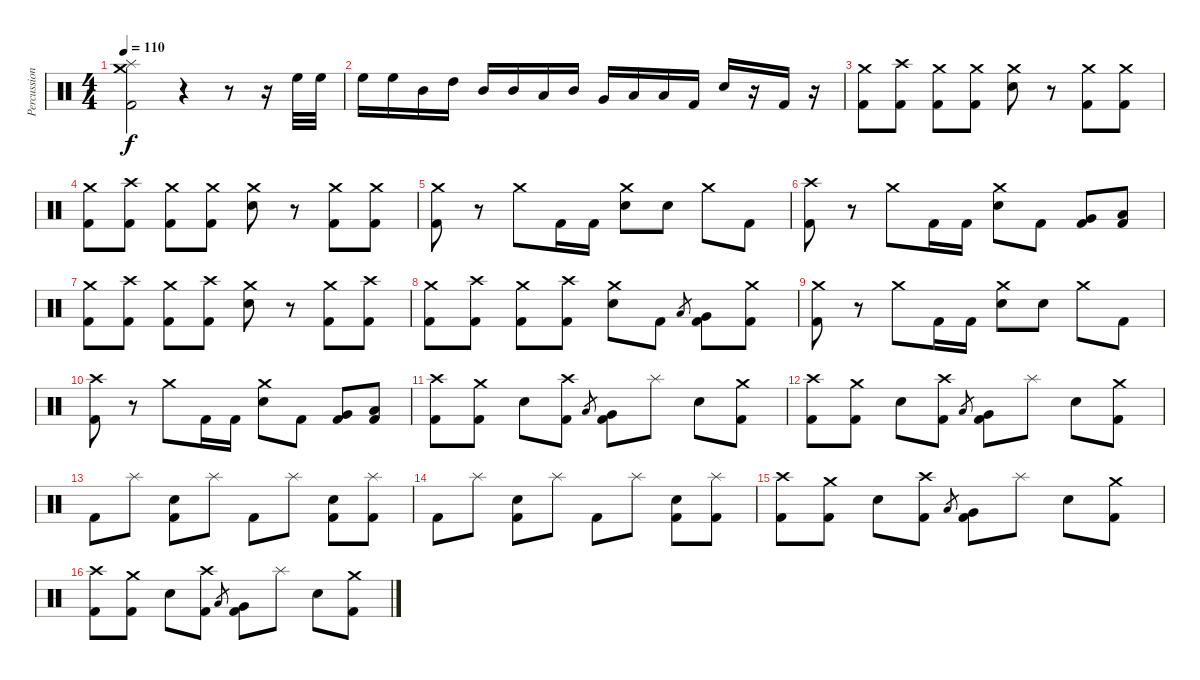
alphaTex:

\track ("Percussion" "Percussion") {instrument percussion}
\staff {score}
\articulation defaults
\ts (4 4)
\tempo 110
\clef neutral
\ks c
("Splash (hit)" "Crash medium (hit)" "Kick (hit) 2").2{dy f} r.4 r.8 r.16 "High Floor Tom (hit)".32 "High Floor Tom (hit)".32 |
"High Floor Tom (hit)".16 "High Floor Tom (hit)".16 "Mid Tom (hit)".16 "High Tom (hit)".16 "Mid Tom (hit)".16 "Mid Tom (hit)".16 "Low Tom (hit)".16 "Mid Tom (hit)".16 "Very Low Tom (hit)".16 "Low Tom (hit)".16 "Low Tom (hit)".16 "Kick (hit) 2".16 "Electric Snare (hit)".16 r.16 "Kick (hit) 2".16 r.16 |
("Crash medium (hit)" "Kick (hit) 2").8 ("Crash high (hit)" "Kick (hit) 2").8 ("Crash medium (hit)" "Kick (hit) 2").8 ("Crash medium (hit)" "Kick (hit) 2").8 ("Crash medium (hit)" "Electric Snare (hit)").8 r.8 ("Crash medium (hit)" "Kick (hit) 2").8 ("Crash medium (hit)" "Kick (hit) 2").8 |
("Crash medium (hit)" "Kick (hit) 2").8 ("Crash high (hit)" "Kick (hit) 2").8 ("Crash medium (hit)" "Kick (hit) 2").8 ("Crash medium (hit)" "Kick (hit) 2").8 ("Crash medium (hit)" "Electric Snare (hit)").8 r.8 ("Crash medium (hit)" "Kick (hit) 2").8 ("Crash medium (hit)" "Kick (hit) 2").8 |
("Crash medium (hit)" "Kick (hit) 2").8 r.8 "Crash medium (hit)".8 "Kick (hit) 2".16 "Kick (hit) 2".16 ("Crash medium (hit)" "Electric Snare (hit)").8 "Electric Snare (hit)".8 "Crash medium (hit)".8 "Kick (hit) 2".8 |
("Crash high (hit)" "Kick (hit) 2").8 r.8 "Crash medium (hit)".8 "Kick (hit) 2".16 "Kick (hit) 2".16 ("Crash medium (hit)" "Electric Snare (hit)").8 "Kick (hit) 2".8 ("Very Low Tom (hit)" "Kick (hit) 2").8 ("Low Floor Tom (hit)" "Kick (hit) 2").8 |
("Crash medium (hit)" "Kick (hit) 2").8 ("Crash high (hit)" "Kick (hit) 2").8 ("Crash medium (hit)" "Kick (hit) 2").8 ("Crash high (hit)" "Kick (hit) 2").8 ("Crash medium (hit)" "Electric Snare (hit)").8 r.8 ("Crash medium (hit)" "Kick (hit) 2").8 ("Crash high (hit)" "Kick (hit) 2").8 |
("Crash medium (hit)" "Kick (hit) 2").8 ("Crash high (hit)" "Kick (hit) 2").8 ("Crash medium (hit)" "Kick (hit) 2").8 ("Crash high (hit)" "Kick (hit) 2").8 ("Crash medium (hit)" "Electric Snare (hit)").8 "Kick (hit) 2".8 "Low Tom (hit)".8{gr} ("Very Low Tom (hit)" "Kick (hit) 2").8 ("Crash medium (hit)" "Kick (hit) 2").8 |
("Crash medium (hit)" "Kick (hit) 2").8 r.8 "Crash medium (hit)".8 "Kick (hit) 2".16 "Kick (hit) 2".16 ("Crash medium (hit)" "Electric Snare (hit)").8 "Electric Snare (hit)".8 "Crash medium (hit)".8 "Kick (hit) 2".8 |
("Crash high (hit)" "Kick (hit) 2").8 r.8 "Crash medium (hit)".8 "Kick (hit) 2".16 "Kick (hit) 2".16 ("Crash medium (hit)" "Electric Snare (hit)").8 "Kick (hit) 2".8 ("Very Low Tom (hit)" "Kick (hit) 2").8 ("Low Floor Tom (hit)" "Kick (hit) 2").8 |
("Crash high (hit)" "Kick (hit) 2").8 ("Crash medium (hit)" "Kick (hit) 2").8 "Electric Snare (hit)".8 ("Crash high (hit)" "Kick (hit) 2").8 "Low Tom (hit)".8{gr} ("Very Low Tom (hit)" "Kick (hit) 2").8 "Splash (hit)".8 "Electric Snare (hit)".8 ("Crash medium (hit)" "Kick (hit) 2").8 |
("Crash high (hit)" "Kick (hit) 2").8 ("Crash medium (hit)" "Kick (hit) 2").8 "Electric Snare (hit)".8 ("Crash high (hit)" "Kick (hit) 2").8 "Low Tom (hit)".8{gr} ("Very Low Tom (hit)" "Kick (hit) 2").8 "Splash (hit)".8 "Electric Snare (hit)".8 ("Crash medium (hit)" "Kick (hit) 2").8 |
"Kick (hit) 2".8 "Splash (hit)".8 ("Electric Snare (hit)" "Kick (hit) 2").8 "Splash (hit)".8 "Kick (hit) 2".8 "Splash (hit)".8 ("Electric Snare (hit)" "Kick (hit) 2").8 ("Splash (hit)" "Kick (hit) 2").8 |
"Kick (hit) 2".8 "Splash (hit)".8 ("Electric Snare (hit)" "Kick (hit) 2").8 "Splash (hit)".8 "Kick (hit) 2".8 "Splash (hit)".8 ("Electric Snare (hit)" "Kick (hit) 2").8 ("Splash (hit)" "Kick (hit) 2").8 |
("Crash high (hit)" "Kick (hit) 2").8 ("Crash medium (hit)" "Kick (hit) 2").8 "Electric Snare (hit)".8 ("Crash high (hit)" "Kick (hit) 2").8 "Low Tom (hit)".8{gr} ("Very Low Tom (hit)" "Kick (hit) 2").8 "Splash (hit)".8 "Electric Snare (hit)".8 ("Crash medium (hit)" "Kick (hit) 2").8 |
("Crash high (hit)" "Kick (hit) 2").8 ("Crash medium (hit)" "Kick (hit) 2").8 "Electric Snare (hit)".8 ("Crash high (hit)" "Kick (hit) 2").8 "Low Tom (hit)".8{gr} ("Very Low Tom (hit)" "Kick (hit) 2").8 "Splash (hit)".8 "Electric Snare (hit)".8 ("Crash medium (hit)" "Kick (hit) 2").8
